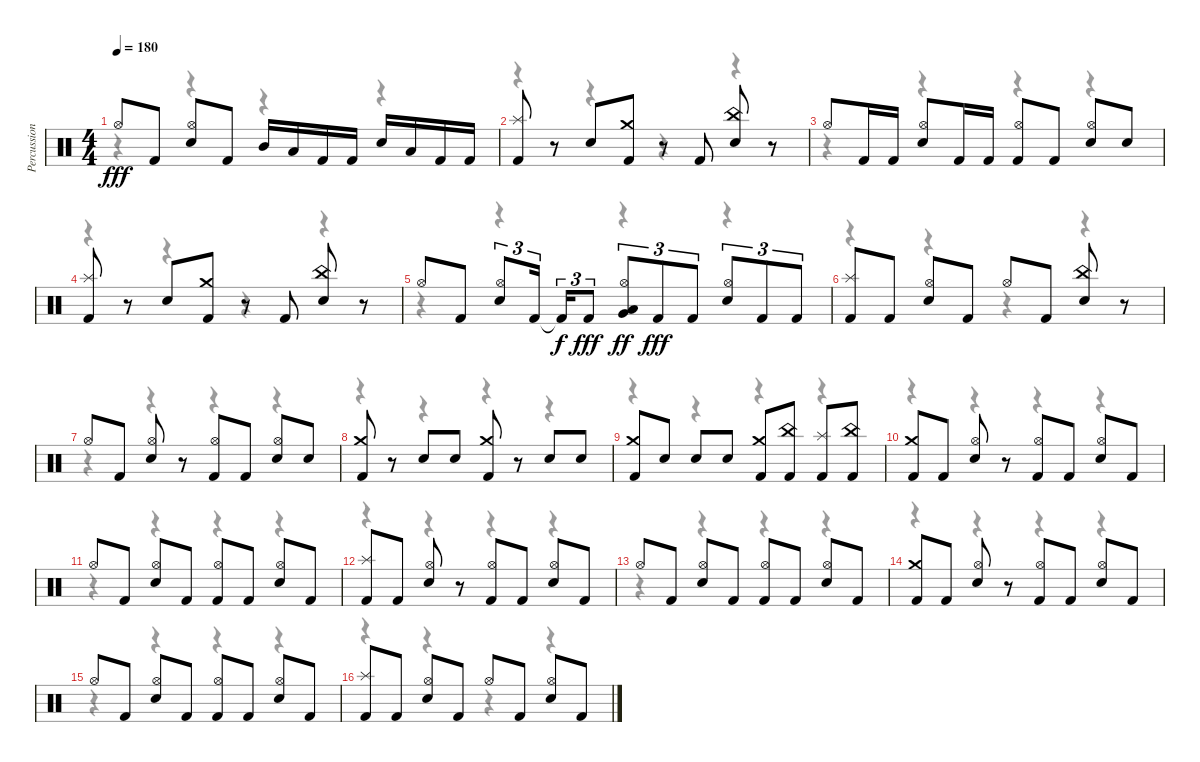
\track ("Percussion" "Percussion") {instrument percussion}
\staff {score}
\articulation defaults
\voice
\ts (4 4)
\tempo 180
\clef neutral
\ks c "Hi-Hat (open)".8{dy fff} "Kick (hit) 2".8
("Hi-Hat (open)" "Snare (hit) 2").8 "Kick (hit) 2".8 "Mid Tom (hit)".16 "Low Tom (hit)".16 "Kick (hit) 2".16 "Kick (hit) 2".16 "Snare (hit) 2".16 "Low Tom (hit)".16 "Kick (hit) 2".16 "Kick (hit) 2".16 |
("Kick (hit) 2" "Splash (hit)").8 r.8 "Snare (hit) 2".8 ("Kick (hit) 2" "Crash medium (hit)").8 r.8 "Kick (hit) 2".8 ("Snare (hit) 2" "China (hit)").8 r.8 |
"Hi-Hat (open)".8 "Kick (hit) 2".16 "Kick (hit) 2".16 ("Hi-Hat (open)" "Snare (hit) 2").8 "Kick (hit) 2".16 "Kick (hit) 2".16 ("Hi-Hat (open)" "Kick (hit) 2").8 "Kick (hit) 2".8 ("Hi-Hat (open)" "Snare (hit) 2").8 "Snare (hit) 2".8 |
("Kick (hit) 2" "Splash (hit)").8 r.8 "Snare (hit) 2".8 ("Kick (hit) 2" "Crash medium (hit)").8 r.8 "Kick (hit) 2".8 ("Snare (hit) 2" "China (hit)").8 r.8 |
"Hi-Hat (open)".8 "Kick (hit) 2".8 ("Snare (hit) 2" "Hi-Hat (open)").8{tu (3 2)} "Kick (hit) 2".16{tu (3 2)} "Kick (hit) 2"{t}.16{tu (3 2) dy f} "Kick (hit) 2".8{tu (3 2) dy fff} ("Very Low Tom (hit)" "Low Tom (hit)" "Hi-Hat (open)").8{tu (3 2) dy ff} "Kick (hit) 2".8{tu (3 2) dy fff} "Kick (hit) 2".8{tu (3 2)} ("Snare (hit) 2" "Hi-Hat (open)").8{tu (3 2)} "Kick (hit) 2".8{tu (3 2)} "Kick (hit) 2".8{tu (3 2)} |
("Kick (hit) 2" "Splash (hit)").8 "Kick (hit) 2".8 ("Hi-Hat (open)" "Snare (hit) 2").8 "Kick (hit) 2".8 "Hi-Hat (open)".8 "Kick (hit) 2".8 ("Snare (hit) 2" "China (hit)").8 r.8 |
"Hi-Hat (open)".8 "Kick (hit) 2".8 ("Hi-Hat (open)" "Snare (hit) 2").8 r.8 ("Hi-Hat (open)" "Kick (hit) 2").8 "Kick (hit) 2".8 ("Hi-Hat (open)" "Snare (hit) 2").8 "Snare (hit) 2".8 |
("Kick (hit) 2" "Crash medium (hit)").8 r.8 "Snare (hit) 2".8 "Snare (hit) 2".8 ("Kick (hit) 2" "Crash medium (hit)").8 r.8 "Snare (hit) 2".8 "Snare (hit) 2".8 |
("Kick (hit) 2" "Crash medium (hit)").8 "Snare (hit) 2".8 "Snare (hit) 2".8 "Snare (hit) 2".8 ("Kick (hit) 2" "Crash medium (hit)").8 ("Kick (hit) 2" "China (hit)").8 ("Kick (hit) 2" "Splash (hit)").8 ("Kick (hit) 2" "China (hit)").8 |
("Kick (hit) 2" "Crash medium (hit)").8 "Kick (hit) 2".8 ("Hi-Hat (open)" "Snare (hit) 2").8 r.8 ("Hi-Hat (open)" "Kick (hit) 2").8 "Kick (hit) 2".8 ("Hi-Hat (open)" "Snare (hit) 2").8 "Kick (hit) 2".8 |
"Hi-Hat (open)".8 "Kick (hit) 2".8 ("Hi-Hat (open)" "Snare (hit) 2").8 "Kick (hit) 2".8 ("Hi-Hat (open)" "Kick (hit) 2").8 "Kick (hit) 2".8 ("Hi-Hat (open)" "Snare (hit) 2").8 "Kick (hit) 2".8 |
("Kick (hit) 2" "Splash (hit)").8 "Kick (hit) 2".8 ("Hi-Hat (open)" "Snare (hit) 2").8 r.8 ("Hi-Hat (open)" "Kick (hit) 2").8 "Kick (hit) 2".8 ("Hi-Hat (open)" "Snare (hit) 2").8 "Kick (hit) 2".8 |
"Hi-Hat (open)".8 "Kick (hit) 2".8 ("Hi-Hat (open)" "Snare (hit) 2").8 "Kick (hit) 2".8 ("Kick (hit) 2" "Hi-Hat (open)").8 "Kick (hit) 2".8 ("Hi-Hat (open)" "Snare (hit) 2").8 "Kick (hit) 2".8 |
("Kick (hit) 2" "Crash medium (hit)").8 "Kick (hit) 2".8 ("Hi-Hat (open)" "Snare (hit) 2").8 r.8 ("Hi-Hat (open)" "Kick (hit) 2").8 "Kick (hit) 2".8 ("Hi-Hat (open)" "Snare (hit) 2").8 "Kick (hit) 2".8 |
"Hi-Hat (open)".8 "Kick (hit) 2".8 ("Hi-Hat (open)" "Snare (hit) 2").8 "Kick (hit) 2".8 ("Hi-Hat (open)" "Kick (hit) 2").8 "Kick (hit) 2".8 ("Hi-Hat (open)" "Snare (hit) 2").8 "Kick (hit) 2".8 |
("Kick (hit) 2" "Splash (hit)").8 "Kick (hit) 2".8 ("Hi-Hat (open)" "Snare (hit) 2").8 "Kick (hit) 2".8 "Hi-Hat (open)".8 "Kick (hit) 2".8 ("Hi-Hat (open)" "Snare (hit) 2").8 "Kick (hit) 2".8
\voice
\clef neutral
\ottava regular
\simile none
\ks c
r.4{dy f} r.4 r.4 r.4 |
r.4 r.4 r.4 r.4 |
r.4 r.4 r.4 r.4 |
r.4 r.4 r.4 r.4 |
r.4 r.4 r.4 r.4 |
r.4 r.4 r.4 r.4 |
r.4 r.4 r.4 r.4 |
r.4 r.4 r.4 r.4 |
r.4 r.4 r.4 r.4 |
r.4 r.4 r.4 r.4 |
r.4 r.4 r.4 r.4 |
r.4 r.4 r.4 r.4 |
r.4 r.4 r.4 r.4 |
r.4 r.4 r.4 r.4 |
r.4 r.4 r.4 r.4 |
r.4 r.4 r.4 r.4
